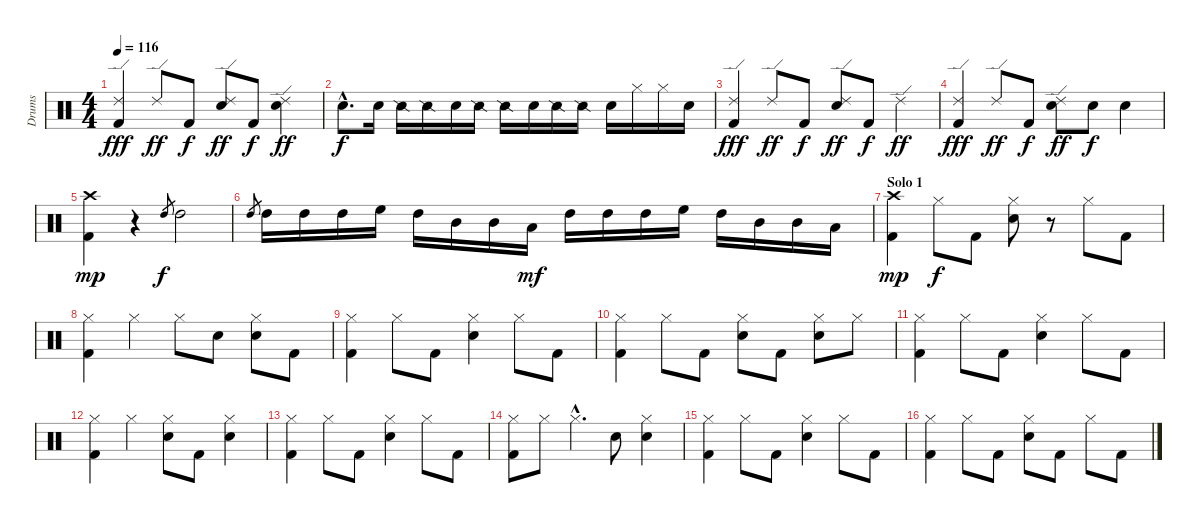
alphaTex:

\track ("Drums" "Drums") {instrument percussion}
\staff {score}
\articulation defaults
\ts (4 4)
\tempo 116
\clef neutral
\ks c
("Ride (edge) 2" "Kick (hit) 2").4{dy fff} "Ride (edge) 2".8{dy ff} "Kick (hit) 2".8{dy f} ("Ride (edge) 2" "Snare (hit) 2").8{dy ff} "Kick (hit) 2".8{dy f} ("Ride (edge) 2" "Snare (hit) 2").4{dy ff} |
"Snare (hit) 2"{hac}.8{d dy f} "Snare (hit) 2".16 "Snare (side stick) 2".16 "Snare (side stick) 2".16 "Snare (hit) 2".16 "Snare (side stick) 2".16 "Snare (side stick) 2".16 "Snare (hit) 2".16 "Snare (side stick) 2".16 "Snare (side stick) 2".16 "Snare (hit) 2".16 "Hi-Hat (closed)".16 "Hi-Hat (closed)".16 "Snare (hit) 2".16 |
("Ride (edge) 2" "Kick (hit) 2").4{dy fff} "Ride (edge) 2".8{dy ff} "Kick (hit) 2".8{dy f} ("Ride (edge) 2" "Snare (hit) 2").8{dy ff} "Kick (hit) 2".8{dy f} "Ride (edge) 2".4{dy ff} |
("Ride (edge) 2" "Kick (hit) 2").4{dy fff} "Ride (edge) 2".8{dy ff} "Kick (hit) 2".8{dy f} ("Ride (edge) 2" "Snare (hit) 2").8{dy ff} "Snare (hit) 2".8{dy f} "Snare (hit) 2".4 |
("Crash high (hit)" "Kick (hit) 2").4{dy mp} r.4 "High Tom (hit)".8{gr dy f} "High Tom (hit)".2 |
"High Tom (hit)".8{gr} "High Tom (hit)".16 "High Tom (hit)".16 "High Tom (hit)".16 "High Floor Tom (hit)".16 "High Tom (hit)".16 "Mid Tom (hit)".16 "Mid Tom (hit)".16 "Low Tom (hit)".16{dy mf} "High Tom (hit)".16 "High Tom (hit)".16 "High Tom (hit)".16 "High Floor Tom (hit)".16 "High Tom (hit)".16 "Mid Tom (hit)".16 "Mid Tom (hit)".16 "Low Tom (hit)".16 |
\section ("" "Solo 1")
("Crash high (hit)" "Kick (hit) 2").4{dy mp} "Hi-Hat (closed)".8{dy f} "Kick (hit) 2".8 ("Hi-Hat (closed)" "Snare (hit) 2").8 r.8 "Hi-Hat (closed)".8 "Kick (hit) 2".8 |
("Hi-Hat (closed)" "Kick (hit) 2").4 "Hi-Hat (closed)".4 "Hi-Hat (closed)".8 "Snare (hit) 2".8 ("Hi-Hat (closed)" "Snare (hit) 2").8 "Kick (hit) 2".8 |
("Hi-Hat (closed)" "Kick (hit) 2").4 "Hi-Hat (closed)".8 "Kick (hit) 2".8 ("Hi-Hat (closed)" "Snare (hit) 2").4 "Hi-Hat (closed)".8 "Kick (hit) 2".8 |
("Hi-Hat (closed)" "Kick (hit) 2").4 "Hi-Hat (closed)".8 "Kick (hit) 2".8 ("Hi-Hat (closed)" "Snare (hit) 2").8 "Kick (hit) 2".8 ("Hi-Hat (closed)" "Snare (hit) 2").8 "Hi-Hat (closed)".8 |
("Hi-Hat (closed)" "Kick (hit) 2").4 "Hi-Hat (closed)".8 "Kick (hit) 2".8 ("Hi-Hat (closed)" "Snare (hit) 2").4 "Hi-Hat (closed)".8 "Kick (hit) 2".8 |
("Hi-Hat (closed)" "Kick (hit) 2").4 "Hi-Hat (closed)".4 ("Hi-Hat (closed)" "Snare (hit) 2").8 "Kick (hit) 2".8 ("Hi-Hat (closed)" "Snare (hit) 2").4 |
("Hi-Hat (closed)" "Kick (hit) 2").4 "Hi-Hat (closed)".8 "Kick (hit) 2".8 ("Hi-Hat (closed)" "Snare (hit) 2").4 "Hi-Hat (closed)".8 "Kick (hit) 2".8 |
("Hi-Hat (closed)" "Kick (hit) 2").8 "Hi-Hat (closed)".8 "Hi-Hat (closed)"{hac}.4{d} "Snare (hit) 2".8 ("Hi-Hat (closed)" "Snare (hit) 2").4 |
("Hi-Hat (closed)" "Kick (hit) 2").4 "Hi-Hat (closed)".8 "Kick (hit) 2".8 ("Hi-Hat (closed)" "Snare (hit) 2").4 "Hi-Hat (closed)".8 "Kick (hit) 2".8 |
("Hi-Hat (closed)" "Kick (hit) 2").4 "Hi-Hat (closed)".8 "Kick (hit) 2".8 ("Hi-Hat (closed)" "Snare (hit) 2").8 "Kick (hit) 2".8 "Hi-Hat (closed)".8 "Kick (hit) 2".8
